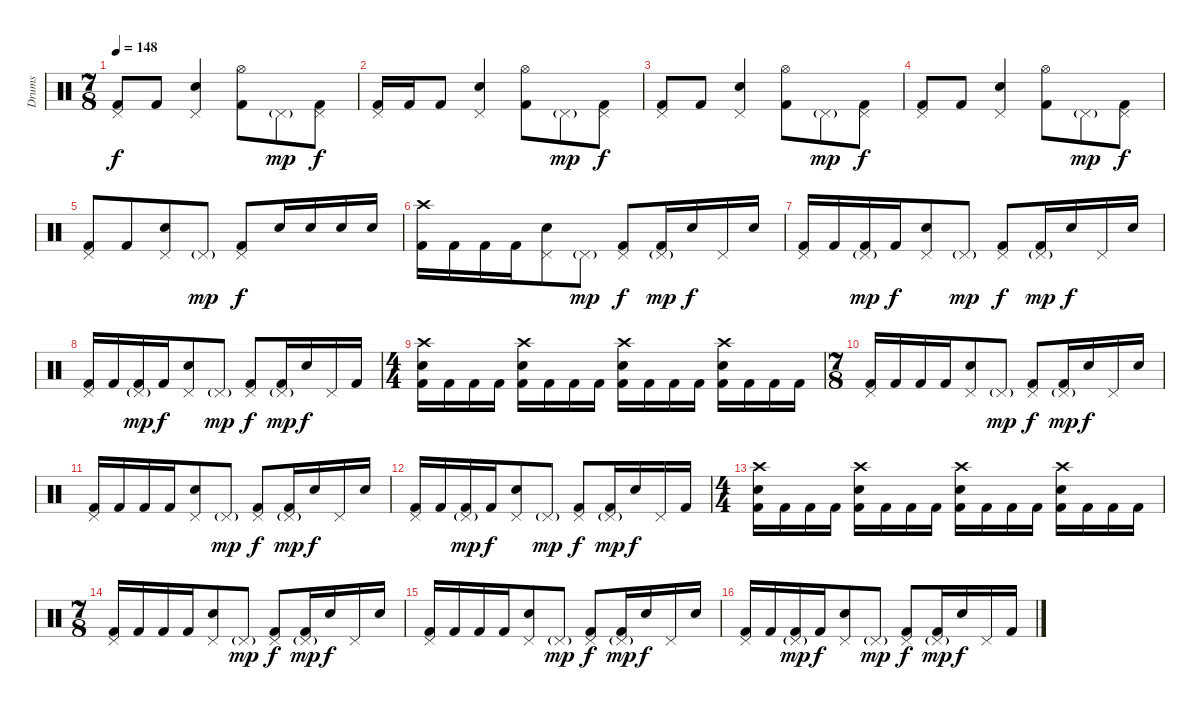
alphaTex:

\track ("Drums" "Drums") {instrument percussion}
\staff {score}
\articulation defaults
\ts (7 8)
\tempo 148
\clef neutral
\ks c
("Pedal Hi-Hat (hit)" "Kick (hit) 2").8{dy f} "Kick (hit) 2".8 ("Pedal Hi-Hat (hit)" "Snare (hit) 2").4 ("Hi-Hat (open)" "Kick (hit) 2").8 "Pedal Hi-Hat (hit)"{g}.8{dy mp} ("Pedal Hi-Hat (hit)" "Kick (hit) 2").8{dy f} |
("Pedal Hi-Hat (hit)" "Kick (hit) 2").16 "Kick (hit) 2".16 "Kick (hit) 2".8 ("Pedal Hi-Hat (hit)" "Snare (hit) 2").4 ("Hi-Hat (open)" "Kick (hit) 2").8 "Pedal Hi-Hat (hit)"{g}.8{dy mp} ("Pedal Hi-Hat (hit)" "Kick (hit) 2").8{dy f} |
("Pedal Hi-Hat (hit)" "Kick (hit) 2").8 "Kick (hit) 2".8 ("Pedal Hi-Hat (hit)" "Snare (hit) 2").4 ("Hi-Hat (open)" "Kick (hit) 2").8 "Pedal Hi-Hat (hit)"{g}.8{dy mp} ("Pedal Hi-Hat (hit)" "Kick (hit) 2").8{dy f} |
("Pedal Hi-Hat (hit)" "Kick (hit) 2").8 "Kick (hit) 2".8 ("Pedal Hi-Hat (hit)" "Snare (hit) 2").4 ("Hi-Hat (open)" "Kick (hit) 2").8 "Pedal Hi-Hat (hit)"{g}.8{dy mp} ("Pedal Hi-Hat (hit)" "Kick (hit) 2").8{dy f} |
("Pedal Hi-Hat (hit)" "Kick (hit) 2").8 "Kick (hit) 2".8 ("Pedal Hi-Hat (hit)" "Snare (hit) 2").8 "Pedal Hi-Hat (hit)"{g}.8{dy mp} ("Pedal Hi-Hat (hit)" "Kick (hit) 2").8{dy f} "Snare (hit) 2".16 "Snare (hit) 2".16 "Snare (hit) 2".16 "Snare (hit) 2".16 |
("Crash high (hit)" "Kick (hit) 2").16 "Kick (hit) 2".16 "Kick (hit) 2".16 "Kick (hit) 2".16 ("Pedal Hi-Hat (hit)" "Snare (hit) 2").8 "Pedal Hi-Hat (hit)"{g}.8{dy mp} ("Pedal Hi-Hat (hit)" "Kick (hit) 2").8{dy f} ("Pedal Hi-Hat (hit)"{g} "Kick (hit) 2").16{dy mp} "Snare (hit) 2".16{dy f} "Pedal Hi-Hat (hit)".16 "Snare (hit) 2".16 |
("Pedal Hi-Hat (hit)" "Kick (hit) 2").16 "Kick (hit) 2".16 ("Pedal Hi-Hat (hit)"{g} "Kick (hit) 2").16{dy mp} "Kick (hit) 2".16{dy f} ("Pedal Hi-Hat (hit)" "Snare (hit) 2").8 "Pedal Hi-Hat (hit)"{g}.8{dy mp} ("Pedal Hi-Hat (hit)" "Kick (hit) 2").8{dy f} ("Pedal Hi-Hat (hit)"{g} "Kick (hit) 2").16{dy mp} "Snare (hit) 2".16{dy f} "Pedal Hi-Hat (hit)".16 "Snare (hit) 2".16 |
("Pedal Hi-Hat (hit)" "Kick (hit) 2").16 "Kick (hit) 2".16 ("Pedal Hi-Hat (hit)"{g} "Kick (hit) 2").16{dy mp} "Kick (hit) 2".16{dy f} ("Pedal Hi-Hat (hit)" "Snare (hit) 2").8 "Pedal Hi-Hat (hit)"{g}.8{dy mp} ("Pedal Hi-Hat (hit)" "Kick (hit) 2").8{dy f} ("Pedal Hi-Hat (hit)"{g} "Kick (hit) 2").16{dy mp} "Snare (hit) 2".16{dy f} "Pedal Hi-Hat (hit)".16 "Kick (hit) 2".16 |
\ts (4 4)
("Crash high (hit)" "Snare (hit) 2" "Kick (hit) 2").16 "Kick (hit) 2".16 "Kick (hit) 2".16 "Kick (hit) 2".16 ("Crash high (hit)" "Snare (hit) 2" "Kick (hit) 2").16 "Kick (hit) 2".16 "Kick (hit) 2".16 "Kick (hit) 2".16 ("Crash high (hit)" "Snare (hit) 2" "Kick (hit) 2").16 "Kick (hit) 2".16 "Kick (hit) 2".16 "Kick (hit) 2".16 ("Crash high (hit)" "Snare (hit) 2" "Kick (hit) 2").16 "Kick (hit) 2".16 "Kick (hit) 2".16 "Kick (hit) 2".16 |
\ts (7 8)
("Pedal Hi-Hat (hit)" "Kick (hit) 2").16 "Kick (hit) 2".16 "Kick (hit) 2".16 "Kick (hit) 2".16 ("Pedal Hi-Hat (hit)" "Snare (hit) 2").8 "Pedal Hi-Hat (hit)"{g}.8{dy mp} ("Pedal Hi-Hat (hit)" "Kick (hit) 2").8{dy f} ("Pedal Hi-Hat (hit)"{g} "Kick (hit) 2").16{dy mp} "Snare (hit) 2".16{dy f} "Pedal Hi-Hat (hit)".16 "Snare (hit) 2".16 |
("Pedal Hi-Hat (hit)" "Kick (hit) 2").16 "Kick (hit) 2".16 "Kick (hit) 2".16 "Kick (hit) 2".16 ("Pedal Hi-Hat (hit)" "Snare (hit) 2").8 "Pedal Hi-Hat (hit)"{g}.8{dy mp} ("Pedal Hi-Hat (hit)" "Kick (hit) 2").8{dy f} ("Pedal Hi-Hat (hit)"{g} "Kick (hit) 2").16{dy mp} "Snare (hit) 2".16{dy f} "Pedal Hi-Hat (hit)".16 "Snare (hit) 2".16 |
("Pedal Hi-Hat (hit)" "Kick (hit) 2").16 "Kick (hit) 2".16 ("Pedal Hi-Hat (hit)"{g} "Kick (hit) 2").16{dy mp} "Kick (hit) 2".16{dy f} ("Pedal Hi-Hat (hit)" "Snare (hit) 2").8 "Pedal Hi-Hat (hit)"{g}.8{dy mp} ("Pedal Hi-Hat (hit)" "Kick (hit) 2").8{dy f} ("Pedal Hi-Hat (hit)"{g} "Kick (hit) 2").16{dy mp} "Snare (hit) 2".16{dy f} "Pedal Hi-Hat (hit)".16 "Kick (hit) 2".16 |
\ts (4 4)
("Crash high (hit)" "Snare (hit) 2" "Kick (hit) 2").16 "Kick (hit) 2".16 "Kick (hit) 2".16 "Kick (hit) 2".16 ("Crash high (hit)" "Snare (hit) 2" "Kick (hit) 2").16 "Kick (hit) 2".16 "Kick (hit) 2".16 "Kick (hit) 2".16 ("Crash high (hit)" "Snare (hit) 2" "Kick (hit) 2").16 "Kick (hit) 2".16 "Kick (hit) 2".16 "Kick (hit) 2".16 ("Crash high (hit)" "Snare (hit) 2" "Kick (hit) 2").16 "Kick (hit) 2".16 "Kick (hit) 2".16 "Kick (hit) 2".16 |
\ts (7 8)
("Pedal Hi-Hat (hit)" "Kick (hit) 2").16 "Kick (hit) 2".16 "Kick (hit) 2".16 "Kick (hit) 2".16 ("Pedal Hi-Hat (hit)" "Snare (hit) 2").8 "Pedal Hi-Hat (hit)"{g}.8{dy mp} ("Pedal Hi-Hat (hit)" "Kick (hit) 2").8{dy f} ("Pedal Hi-Hat (hit)"{g} "Kick (hit) 2").16{dy mp} "Snare (hit) 2".16{dy f} "Pedal Hi-Hat (hit)".16 "Snare (hit) 2".16 |
("Pedal Hi-Hat (hit)" "Kick (hit) 2").16 "Kick (hit) 2".16 "Kick (hit) 2".16 "Kick (hit) 2".16 ("Pedal Hi-Hat (hit)" "Snare (hit) 2").8 "Pedal Hi-Hat (hit)"{g}.8{dy mp} ("Pedal Hi-Hat (hit)" "Kick (hit) 2").8{dy f} ("Pedal Hi-Hat (hit)"{g} "Kick (hit) 2").16{dy mp} "Snare (hit) 2".16{dy f} "Pedal Hi-Hat (hit)".16 "Snare (hit) 2".16 |
("Pedal Hi-Hat (hit)" "Kick (hit) 2").16 "Kick (hit) 2".16 ("Pedal Hi-Hat (hit)"{g} "Kick (hit) 2").16{dy mp} "Kick (hit) 2".16{dy f} ("Pedal Hi-Hat (hit)" "Snare (hit) 2").8 "Pedal Hi-Hat (hit)"{g}.8{dy mp} ("Pedal Hi-Hat (hit)" "Kick (hit) 2").8{dy f} ("Pedal Hi-Hat (hit)"{g} "Kick (hit) 2").16{dy mp} "Snare (hit) 2".16{dy f} "Pedal Hi-Hat (hit)".16 "Kick (hit) 2".16
